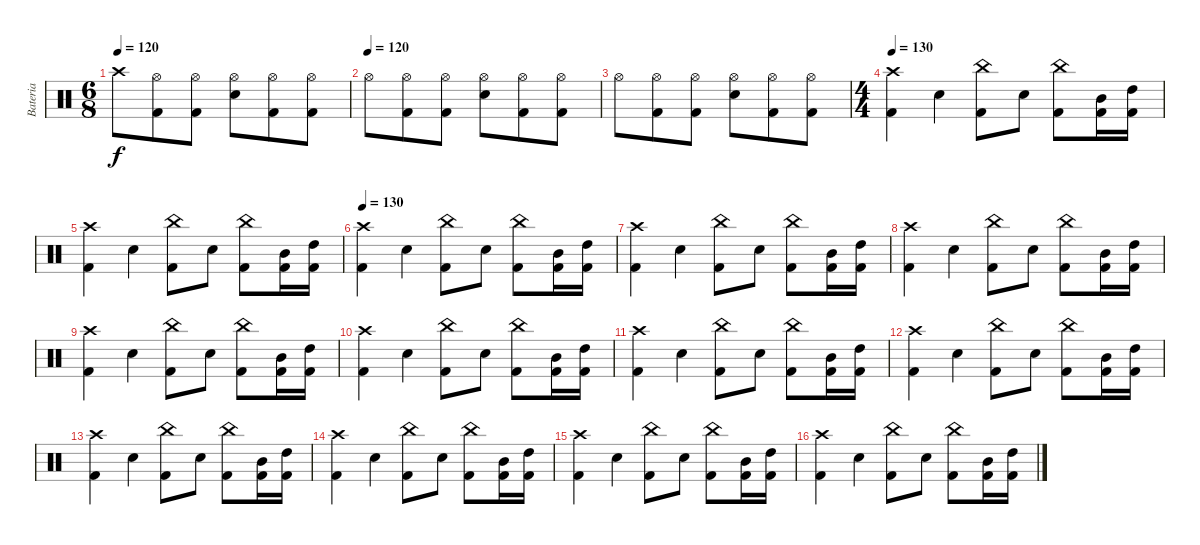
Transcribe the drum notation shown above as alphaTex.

\track ("Bateria" "Bateria") {instrument percussion}
\staff {score}
\articulation defaults
\ts (6 8)
\tempo 120
\clef neutral
\ks c "Crash high (hit)".8{dy f}
("Hi-Hat (open)" "Kick (hit) 2").8 ("Hi-Hat (open)" "Kick (hit) 2").8 ("Hi-Hat (open)" "Electric Snare (hit)").8 ("Hi-Hat (open)" "Kick (hit) 2").8 ("Hi-Hat (open)" "Kick (hit) 2").8 |
\tempo (120)
"Hi-Hat (open)".8 ("Hi-Hat (open)" "Kick (hit) 2").8 ("Hi-Hat (open)" "Kick (hit) 2").8 ("Hi-Hat (open)" "Electric Snare (hit)").8 ("Hi-Hat (open)" "Kick (hit) 2").8 ("Hi-Hat (open)" "Kick (hit) 2").8 |
"Hi-Hat (open)".8 ("Hi-Hat (open)" "Kick (hit) 2").8 ("Hi-Hat (open)" "Kick (hit) 2").8 ("Hi-Hat (open)" "Electric Snare (hit)").8 ("Hi-Hat (open)" "Kick (hit) 2").8 ("Hi-Hat (open)" "Kick (hit) 2").8 |
\ts (4 4)
\tempo 130
("Kick (hit) 2" "Crash high (hit)").4 "Electric Snare (hit)".4 ("China (hit)" "Kick (hit) 2").8 "Electric Snare (hit)".8 ("China (hit)" "Kick (hit) 2").8 ("Mid Tom (hit)" "Kick (hit) 2").16 ("High Tom (hit)" "Kick (hit) 2").16 |
("Kick (hit) 2" "Crash high (hit)").4 "Electric Snare (hit)".4 ("China (hit)" "Kick (hit) 2").8 "Electric Snare (hit)".8 ("China (hit)" "Kick (hit) 2").8 ("Mid Tom (hit)" "Kick (hit) 2").16 ("High Tom (hit)" "Kick (hit) 2").16 |
\tempo 130
("Kick (hit) 2" "Crash high (hit)").4 "Electric Snare (hit)".4 ("China (hit)" "Kick (hit) 2").8 "Electric Snare (hit)".8 ("China (hit)" "Kick (hit) 2").8 ("Mid Tom (hit)" "Kick (hit) 2").16 ("High Tom (hit)" "Kick (hit) 2").16 |
("Kick (hit) 2" "Crash high (hit)").4 "Electric Snare (hit)".4 ("China (hit)" "Kick (hit) 2").8 "Electric Snare (hit)".8 ("China (hit)" "Kick (hit) 2").8 ("Mid Tom (hit)" "Kick (hit) 2").16 ("High Tom (hit)" "Kick (hit) 2").16 |
("Kick (hit) 2" "Crash high (hit)").4 "Electric Snare (hit)".4 ("China (hit)" "Kick (hit) 2").8 "Electric Snare (hit)".8 ("China (hit)" "Kick (hit) 2").8 ("Mid Tom (hit)" "Kick (hit) 2").16 ("High Tom (hit)" "Kick (hit) 2").16 |
("Kick (hit) 2" "Crash high (hit)").4 "Electric Snare (hit)".4 ("China (hit)" "Kick (hit) 2").8 "Electric Snare (hit)".8 ("China (hit)" "Kick (hit) 2").8 ("Mid Tom (hit)" "Kick (hit) 2").16 ("High Tom (hit)" "Kick (hit) 2").16 |
("Kick (hit) 2" "Crash high (hit)").4 "Electric Snare (hit)".4 ("China (hit)" "Kick (hit) 2").8 "Electric Snare (hit)".8 ("China (hit)" "Kick (hit) 2").8 ("Mid Tom (hit)" "Kick (hit) 2").16 ("High Tom (hit)" "Kick (hit) 2").16 |
("Kick (hit) 2" "Crash high (hit)").4 "Electric Snare (hit)".4 ("China (hit)" "Kick (hit) 2").8 "Electric Snare (hit)".8 ("China (hit)" "Kick (hit) 2").8 ("Mid Tom (hit)" "Kick (hit) 2").16 ("High Tom (hit)" "Kick (hit) 2").16 |
("Kick (hit) 2" "Crash high (hit)").4 "Electric Snare (hit)".4 ("China (hit)" "Kick (hit) 2").8 "Electric Snare (hit)".8 ("China (hit)" "Kick (hit) 2").8 ("Mid Tom (hit)" "Kick (hit) 2").16 ("High Tom (hit)" "Kick (hit) 2").16 |
("Kick (hit) 2" "Crash high (hit)").4 "Electric Snare (hit)".4 ("China (hit)" "Kick (hit) 2").8 "Electric Snare (hit)".8 ("China (hit)" "Kick (hit) 2").8 ("Mid Tom (hit)" "Kick (hit) 2").16 ("High Tom (hit)" "Kick (hit) 2").16 |
("Kick (hit) 2" "Crash high (hit)").4 "Electric Snare (hit)".4 ("China (hit)" "Kick (hit) 2").8 "Electric Snare (hit)".8 ("China (hit)" "Kick (hit) 2").8 ("Mid Tom (hit)" "Kick (hit) 2").16 ("High Tom (hit)" "Kick (hit) 2").16 |
("Kick (hit) 2" "Crash high (hit)").4 "Electric Snare (hit)".4 ("China (hit)" "Kick (hit) 2").8 "Electric Snare (hit)".8 ("China (hit)" "Kick (hit) 2").8 ("Mid Tom (hit)" "Kick (hit) 2").16 ("High Tom (hit)" "Kick (hit) 2").16 |
("Kick (hit) 2" "Crash high (hit)").4 "Electric Snare (hit)".4 ("China (hit)" "Kick (hit) 2").8 "Electric Snare (hit)".8 ("China (hit)" "Kick (hit) 2").8 ("Mid Tom (hit)" "Kick (hit) 2").16 ("High Tom (hit)" "Kick (hit) 2").16
